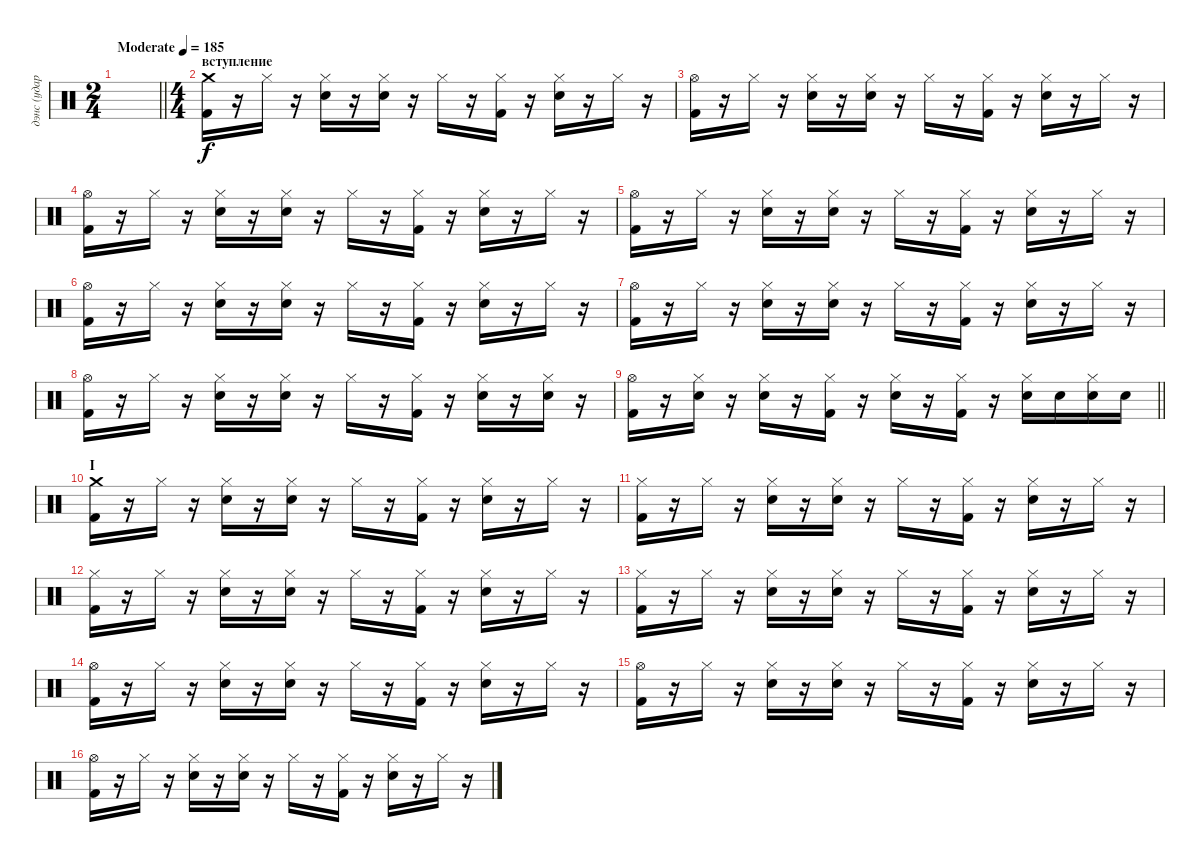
\track ("дэнс (ударные)" "дэнс (удар") {instrument percussion}
\staff {score}
\articulation defaults
\ts (2 4)
\tempo (185 "Moderate")
\clef neutral
\barLineRight lightlight
\ks c
|
\ts (4 4)
\section ("" "вступление")
("Kick (hit) 2" "Crash medium (hit)").16 r.16 "Hi-Hat (closed)".16 r.16 ("Snare (hit) 2" "Hi-Hat (closed)").16 r.16 ("Snare (hit) 2" "Hi-Hat (closed)").16 r.16 "Hi-Hat (closed)".16 r.16 ("Kick (hit) 2" "Hi-Hat (closed)").16 r.16 ("Snare (hit) 2" "Hi-Hat (closed)").16 r.16 "Hi-Hat (closed)".16 r.16 |
("Kick (hit) 2" "Hi-Hat (open)").16 r.16 "Hi-Hat (closed)".16 r.16 ("Snare (hit) 2" "Hi-Hat (closed)").16 r.16 ("Snare (hit) 2" "Hi-Hat (closed)").16 r.16 "Hi-Hat (closed)".16 r.16 ("Kick (hit) 2" "Hi-Hat (closed)").16 r.16 ("Snare (hit) 2" "Hi-Hat (closed)").16 r.16 "Hi-Hat (closed)".16 r.16 |
("Kick (hit) 2" "Hi-Hat (open)").16 r.16 "Hi-Hat (closed)".16 r.16 ("Snare (hit) 2" "Hi-Hat (closed)").16 r.16 ("Snare (hit) 2" "Hi-Hat (closed)").16 r.16 "Hi-Hat (closed)".16 r.16 ("Kick (hit) 2" "Hi-Hat (closed)").16 r.16 ("Snare (hit) 2" "Hi-Hat (closed)").16 r.16 "Hi-Hat (closed)".16 r.16 |
("Kick (hit) 2" "Hi-Hat (open)").16 r.16 "Hi-Hat (closed)".16 r.16 ("Snare (hit) 2" "Hi-Hat (closed)").16 r.16 ("Snare (hit) 2" "Hi-Hat (closed)").16 r.16 "Hi-Hat (closed)".16 r.16 ("Kick (hit) 2" "Hi-Hat (closed)").16 r.16 ("Snare (hit) 2" "Hi-Hat (closed)").16 r.16 "Hi-Hat (closed)".16 r.16 |
("Kick (hit) 2" "Hi-Hat (open)").16 r.16 "Hi-Hat (closed)".16 r.16 ("Snare (hit) 2" "Hi-Hat (closed)").16 r.16 ("Snare (hit) 2" "Hi-Hat (closed)").16 r.16 "Hi-Hat (closed)".16 r.16 ("Kick (hit) 2" "Hi-Hat (closed)").16 r.16 ("Snare (hit) 2" "Hi-Hat (closed)").16 r.16 "Hi-Hat (closed)".16 r.16 |
("Kick (hit) 2" "Hi-Hat (open)").16 r.16 "Hi-Hat (closed)".16 r.16 ("Snare (hit) 2" "Hi-Hat (closed)").16 r.16 ("Snare (hit) 2" "Hi-Hat (closed)").16 r.16 "Hi-Hat (closed)".16 r.16 ("Kick (hit) 2" "Hi-Hat (closed)").16 r.16 ("Snare (hit) 2" "Hi-Hat (closed)").16 r.16 "Hi-Hat (closed)".16 r.16 |
("Kick (hit) 2" "Hi-Hat (open)").16 r.16 "Hi-Hat (closed)".16 r.16 ("Snare (hit) 2" "Hi-Hat (closed)").16 r.16 ("Snare (hit) 2" "Hi-Hat (closed)").16 r.16 "Hi-Hat (closed)".16 r.16 ("Kick (hit) 2" "Hi-Hat (closed)").16 r.16 ("Snare (hit) 2" "Hi-Hat (closed)").16 r.16 ("Snare (hit) 2" "Hi-Hat (closed)").16 r.16 |
\barLineRight lightlight
("Kick (hit) 2" "Hi-Hat (open)").16 r.16 ("Snare (hit) 2" "Hi-Hat (closed)").16 r.16 ("Snare (hit) 2" "Hi-Hat (closed)").16 r.16 ("Kick (hit) 2" "Hi-Hat (closed)").16 r.16 ("Snare (hit) 2" "Hi-Hat (closed)").16 r.16 ("Kick (hit) 2" "Hi-Hat (closed)").16 r.16 ("Snare (hit) 2" "Hi-Hat (closed)").16 "Snare (hit) 2".16 ("Snare (hit) 2" "Hi-Hat (closed)").16 "Snare (hit) 2".16 |
\section ("" "I")
("Kick (hit) 2" "Crash medium (hit)").16 r.16 "Hi-Hat (closed)".16 r.16 ("Snare (hit) 2" "Hi-Hat (closed)").16 r.16 ("Snare (hit) 2" "Hi-Hat (closed)").16 r.16 "Hi-Hat (closed)".16 r.16 ("Kick (hit) 2" "Hi-Hat (closed)").16 r.16 ("Snare (hit) 2" "Hi-Hat (closed)").16 r.16 "Hi-Hat (closed)".16 r.16 |
("Kick (hit) 2" "Hi-Hat (closed)").16 r.16 "Hi-Hat (closed)".16 r.16 ("Snare (hit) 2" "Hi-Hat (closed)").16 r.16 ("Snare (hit) 2" "Hi-Hat (closed)").16 r.16 "Hi-Hat (closed)".16 r.16 ("Kick (hit) 2" "Hi-Hat (closed)").16 r.16 ("Snare (hit) 2" "Hi-Hat (closed)").16 r.16 "Hi-Hat (closed)".16 r.16 |
("Kick (hit) 2" "Hi-Hat (closed)").16 r.16 "Hi-Hat (closed)".16 r.16 ("Snare (hit) 2" "Hi-Hat (closed)").16 r.16 ("Snare (hit) 2" "Hi-Hat (closed)").16 r.16 "Hi-Hat (closed)".16 r.16 ("Kick (hit) 2" "Hi-Hat (closed)").16 r.16 ("Snare (hit) 2" "Hi-Hat (closed)").16 r.16 "Hi-Hat (closed)".16 r.16 |
("Kick (hit) 2" "Hi-Hat (closed)").16 r.16 "Hi-Hat (closed)".16 r.16 ("Snare (hit) 2" "Hi-Hat (closed)").16 r.16 ("Snare (hit) 2" "Hi-Hat (closed)").16 r.16 "Hi-Hat (closed)".16 r.16 ("Kick (hit) 2" "Hi-Hat (closed)").16 r.16 ("Snare (hit) 2" "Hi-Hat (closed)").16 r.16 "Hi-Hat (closed)".16 r.16 |
("Kick (hit) 2" "Hi-Hat (open)").16 r.16 "Hi-Hat (closed)".16 r.16 ("Snare (hit) 2" "Hi-Hat (closed)").16 r.16 ("Snare (hit) 2" "Hi-Hat (closed)").16 r.16 "Hi-Hat (closed)".16 r.16 ("Kick (hit) 2" "Hi-Hat (closed)").16 r.16 ("Snare (hit) 2" "Hi-Hat (closed)").16 r.16 "Hi-Hat (closed)".16 r.16 |
("Kick (hit) 2" "Hi-Hat (open)").16 r.16 "Hi-Hat (closed)".16 r.16 ("Snare (hit) 2" "Hi-Hat (closed)").16 r.16 ("Snare (hit) 2" "Hi-Hat (closed)").16 r.16 "Hi-Hat (closed)".16 r.16 ("Kick (hit) 2" "Hi-Hat (closed)").16 r.16 ("Snare (hit) 2" "Hi-Hat (closed)").16 r.16 "Hi-Hat (closed)".16 r.16 |
("Kick (hit) 2" "Hi-Hat (open)").16 r.16 "Hi-Hat (closed)".16 r.16 ("Snare (hit) 2" "Hi-Hat (closed)").16 r.16 ("Snare (hit) 2" "Hi-Hat (closed)").16 r.16 "Hi-Hat (closed)".16 r.16 ("Kick (hit) 2" "Hi-Hat (closed)").16 r.16 ("Snare (hit) 2" "Hi-Hat (closed)").16 r.16 "Hi-Hat (closed)".16 r.16
